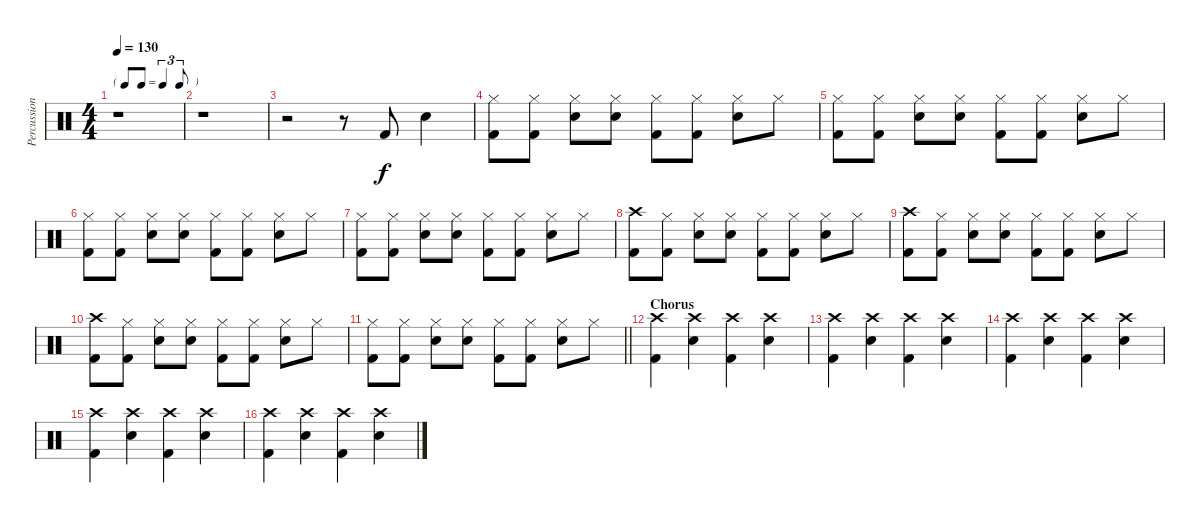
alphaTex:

\track ("Percussions" "Percussion") {instrument percussion}
\staff {score}
\articulation defaults
\ts (4 4)
\tf triplet8th
\tempo 130
\clef neutral
\ks c
r.1{dy f} |
r.1 |
r.2 r.8 "Kick (hit) 2".8 "Electric Snare (hit)".4 |
("Hi-Hat (closed)" "Kick (hit) 2").8 ("Hi-Hat (closed)" "Kick (hit) 2").8 ("Hi-Hat (closed)" "Electric Snare (hit)").8 ("Hi-Hat (closed)" "Electric Snare (hit)").8 ("Hi-Hat (closed)" "Kick (hit) 2").8 ("Hi-Hat (closed)" "Kick (hit) 2").8 ("Hi-Hat (closed)" "Electric Snare (hit)").8 "Hi-Hat (closed)".8 |
("Hi-Hat (closed)" "Kick (hit) 2").8 ("Hi-Hat (closed)" "Kick (hit) 2").8 ("Hi-Hat (closed)" "Electric Snare (hit)").8 ("Hi-Hat (closed)" "Electric Snare (hit)").8 ("Hi-Hat (closed)" "Kick (hit) 2").8 ("Hi-Hat (closed)" "Kick (hit) 2").8 ("Hi-Hat (closed)" "Electric Snare (hit)").8 "Hi-Hat (closed)".8 |
("Hi-Hat (closed)" "Kick (hit) 2").8 ("Hi-Hat (closed)" "Kick (hit) 2").8 ("Hi-Hat (closed)" "Electric Snare (hit)").8 ("Hi-Hat (closed)" "Electric Snare (hit)").8 ("Hi-Hat (closed)" "Kick (hit) 2").8 ("Hi-Hat (closed)" "Kick (hit) 2").8 ("Hi-Hat (closed)" "Electric Snare (hit)").8 "Hi-Hat (closed)".8 |
("Hi-Hat (closed)" "Kick (hit) 2").8 ("Hi-Hat (closed)" "Kick (hit) 2").8 ("Hi-Hat (closed)" "Electric Snare (hit)").8 ("Hi-Hat (closed)" "Electric Snare (hit)").8 ("Hi-Hat (closed)" "Kick (hit) 2").8 ("Hi-Hat (closed)" "Kick (hit) 2").8 ("Hi-Hat (closed)" "Electric Snare (hit)").8 "Hi-Hat (closed)".8 |
("Crash high (hit)" "Kick (hit) 2").8 ("Hi-Hat (closed)" "Kick (hit) 2").8 ("Hi-Hat (closed)" "Electric Snare (hit)").8 ("Hi-Hat (closed)" "Electric Snare (hit)").8 ("Hi-Hat (closed)" "Kick (hit) 2").8 ("Hi-Hat (closed)" "Kick (hit) 2").8 ("Hi-Hat (closed)" "Electric Snare (hit)").8 "Hi-Hat (closed)".8 |
("Crash high (hit)" "Kick (hit) 2").8 ("Hi-Hat (closed)" "Kick (hit) 2").8 ("Hi-Hat (closed)" "Electric Snare (hit)").8 ("Hi-Hat (closed)" "Electric Snare (hit)").8 ("Hi-Hat (closed)" "Kick (hit) 2").8 ("Hi-Hat (closed)" "Kick (hit) 2").8 ("Hi-Hat (closed)" "Electric Snare (hit)").8 "Hi-Hat (closed)".8 |
("Crash high (hit)" "Kick (hit) 2").8 ("Hi-Hat (closed)" "Kick (hit) 2").8 ("Hi-Hat (closed)" "Electric Snare (hit)").8 ("Hi-Hat (closed)" "Electric Snare (hit)").8 ("Hi-Hat (closed)" "Kick (hit) 2").8 ("Hi-Hat (closed)" "Kick (hit) 2").8 ("Hi-Hat (closed)" "Electric Snare (hit)").8 "Hi-Hat (closed)".8 |
\barLineRight lightlight
("Hi-Hat (closed)" "Kick (hit) 2").8 ("Hi-Hat (closed)" "Kick (hit) 2").8 ("Hi-Hat (closed)" "Electric Snare (hit)").8 ("Hi-Hat (closed)" "Electric Snare (hit)").8 ("Hi-Hat (closed)" "Kick (hit) 2").8 ("Hi-Hat (closed)" "Kick (hit) 2").8 ("Hi-Hat (closed)" "Electric Snare (hit)").8 "Hi-Hat (closed)".8 |
\section ("" "Chorus")
("Crash high (hit)" "Kick (hit) 2").4 ("Crash high (hit)" "Electric Snare (hit)").4 ("Crash high (hit)" "Kick (hit) 2").4 ("Crash high (hit)" "Electric Snare (hit)").4 |
("Crash high (hit)" "Kick (hit) 2").4 ("Crash high (hit)" "Electric Snare (hit)").4 ("Crash high (hit)" "Kick (hit) 2").4 ("Crash high (hit)" "Electric Snare (hit)").4 |
("Crash high (hit)" "Kick (hit) 2").4 ("Crash high (hit)" "Electric Snare (hit)").4 ("Crash high (hit)" "Kick (hit) 2").4 ("Crash high (hit)" "Electric Snare (hit)").4 |
("Crash high (hit)" "Kick (hit) 2").4 ("Crash high (hit)" "Electric Snare (hit)").4 ("Crash high (hit)" "Kick (hit) 2").4 ("Crash high (hit)" "Electric Snare (hit)").4 |
("Crash high (hit)" "Kick (hit) 2").4 ("Crash high (hit)" "Electric Snare (hit)").4 ("Crash high (hit)" "Kick (hit) 2").4 ("Crash high (hit)" "Electric Snare (hit)").4
